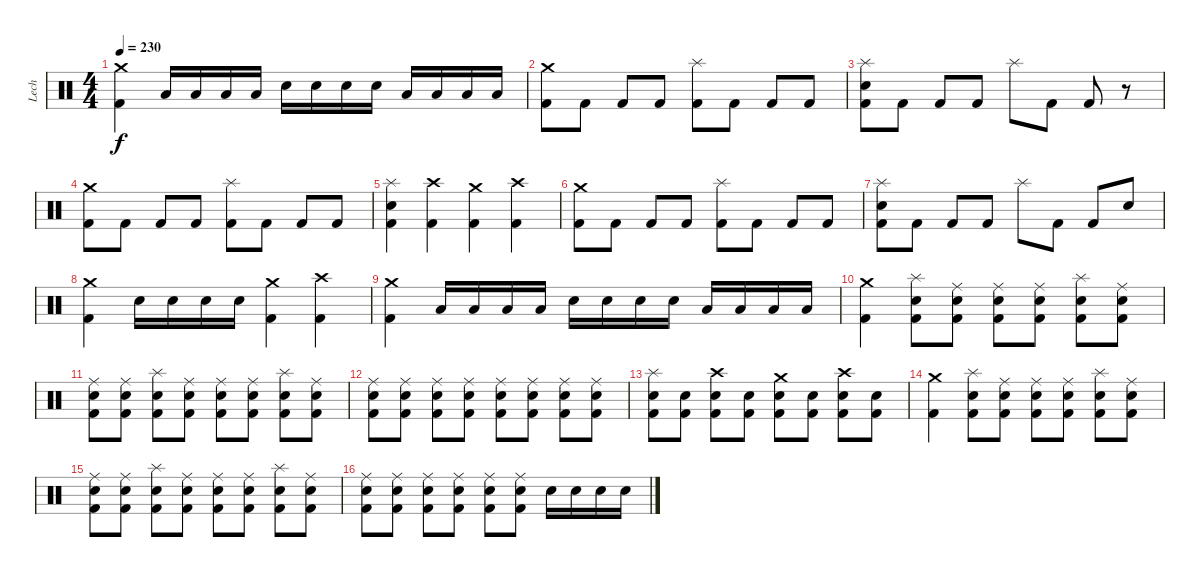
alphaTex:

\track ("Lech" "Lech") {instrument percussion}
\staff {score}
\articulation defaults
\ts (4 4)
\tempo 230
\clef neutral
\ks c
("Crash medium (hit)" "Kick (hit) 2").4{dy f} "Low Tom (hit)".16 "Low Tom (hit)".16 "Low Tom (hit)".16 "Low Tom (hit)".16 "Electric Snare (hit)".16 "Electric Snare (hit)".16 "Electric Snare (hit)".16 "Electric Snare (hit)".16 "Low Tom (hit)".16 "Low Tom (hit)".16 "Low Tom (hit)".16 "Low Tom (hit)".16 |
("Crash medium (hit)" "Kick (hit) 2").8 "Kick (hit) 2".8 "Kick (hit) 2".8 "Kick (hit) 2".8 ("Splash (hit)" "Kick (hit) 2").8 "Kick (hit) 2".8 "Kick (hit) 2".8 "Kick (hit) 2".8 |
("Splash (hit)" "Electric Snare (hit)" "Kick (hit) 2").8 "Kick (hit) 2".8 "Kick (hit) 2".8 "Kick (hit) 2".8 "Splash (hit)".8 "Kick (hit) 2".8 "Kick (hit) 2".8 r.8 |
("Crash medium (hit)" "Kick (hit) 2").8 "Kick (hit) 2".8 "Kick (hit) 2".8 "Kick (hit) 2".8 ("Splash (hit)" "Kick (hit) 2").8 "Kick (hit) 2".8 "Kick (hit) 2".8 "Kick (hit) 2".8 |
("Splash (hit)" "Electric Snare (hit)" "Kick (hit) 2").4 ("Crash high (hit)" "Kick (hit) 2").4 ("Crash medium (hit)" "Kick (hit) 2").4 ("Crash high (hit)" "Kick (hit) 2").4 |
("Crash medium (hit)" "Kick (hit) 2").8 "Kick (hit) 2".8 "Kick (hit) 2".8 "Kick (hit) 2".8 ("Splash (hit)" "Kick (hit) 2").8 "Kick (hit) 2".8 "Kick (hit) 2".8 "Kick (hit) 2".8 |
("Splash (hit)" "Electric Snare (hit)" "Kick (hit) 2").8 "Kick (hit) 2".8 "Kick (hit) 2".8 "Kick (hit) 2".8 "Splash (hit)".8 "Kick (hit) 2".8 "Kick (hit) 2".8 "Electric Snare (hit)".8 |
("Crash medium (hit)" "Kick (hit) 2").4 "Electric Snare (hit)".16 "Electric Snare (hit)".16 "Electric Snare (hit)".16 "Electric Snare (hit)".16 ("Crash medium (hit)" "Kick (hit) 2").4 ("Crash high (hit)" "Kick (hit) 2").4 |
("Crash medium (hit)" "Kick (hit) 2").4 "Low Tom (hit)".16 "Low Tom (hit)".16 "Low Tom (hit)".16 "Low Tom (hit)".16 "Electric Snare (hit)".16 "Electric Snare (hit)".16 "Electric Snare (hit)".16 "Electric Snare (hit)".16 "Low Tom (hit)".16 "Low Tom (hit)".16 "Low Tom (hit)".16 "Low Tom (hit)".16 |
("Crash medium (hit)" "Kick (hit) 2").4 ("Splash (hit)" "Electric Snare (hit)" "Kick (hit) 2").8 ("Ride (middle)" "Electric Snare (hit)" "Kick (hit) 2").8 ("Ride (middle)" "Electric Snare (hit)" "Kick (hit) 2").8 ("Ride (middle)" "Electric Snare (hit)" "Kick (hit) 2").8 ("Splash (hit)" "Electric Snare (hit)" "Kick (hit) 2").8 ("Ride (middle)" "Electric Snare (hit)" "Kick (hit) 2").8 |
("Ride (middle)" "Electric Snare (hit)" "Kick (hit) 2").8 ("Ride (middle)" "Electric Snare (hit)" "Kick (hit) 2").8 ("Splash (hit)" "Electric Snare (hit)" "Kick (hit) 2").8 ("Ride (middle)" "Electric Snare (hit)" "Kick (hit) 2").8 ("Ride (middle)" "Electric Snare (hit)" "Kick (hit) 2").8 ("Ride (middle)" "Electric Snare (hit)" "Kick (hit) 2").8 ("Splash (hit)" "Electric Snare (hit)" "Kick (hit) 2").8 ("Ride (middle)" "Electric Snare (hit)" "Kick (hit) 2").8 |
("Ride (middle)" "Electric Snare (hit)" "Kick (hit) 2").8 ("Ride (middle)" "Electric Snare (hit)" "Kick (hit) 2").8 ("Ride (middle)" "Electric Snare (hit)" "Kick (hit) 2").8 ("Ride (middle)" "Electric Snare (hit)" "Kick (hit) 2").8 ("Ride (middle)" "Electric Snare (hit)" "Kick (hit) 2").8 ("Ride (middle)" "Electric Snare (hit)" "Kick (hit) 2").8 ("Ride (middle)" "Electric Snare (hit)" "Kick (hit) 2").8 ("Ride (middle)" "Electric Snare (hit)" "Kick (hit) 2").8 |
("Splash (hit)" "Electric Snare (hit)" "Kick (hit) 2").8 ("Electric Snare (hit)" "Kick (hit) 2").8 ("Crash high (hit)" "Electric Snare (hit)" "Kick (hit) 2").8 ("Electric Snare (hit)" "Kick (hit) 2").8 ("Crash medium (hit)" "Electric Snare (hit)" "Kick (hit) 2").8 ("Electric Snare (hit)" "Kick (hit) 2").8 ("Crash high (hit)" "Electric Snare (hit)" "Kick (hit) 2").8 ("Electric Snare (hit)" "Kick (hit) 2").8 |
("Crash medium (hit)" "Kick (hit) 2").4 ("Splash (hit)" "Electric Snare (hit)" "Kick (hit) 2").8 ("Ride (middle)" "Electric Snare (hit)" "Kick (hit) 2").8 ("Ride (middle)" "Electric Snare (hit)" "Kick (hit) 2").8 ("Ride (middle)" "Electric Snare (hit)" "Kick (hit) 2").8 ("Splash (hit)" "Electric Snare (hit)" "Kick (hit) 2").8 ("Ride (middle)" "Electric Snare (hit)" "Kick (hit) 2").8 |
("Ride (middle)" "Electric Snare (hit)" "Kick (hit) 2").8 ("Ride (middle)" "Electric Snare (hit)" "Kick (hit) 2").8 ("Splash (hit)" "Electric Snare (hit)" "Kick (hit) 2").8 ("Ride (middle)" "Electric Snare (hit)" "Kick (hit) 2").8 ("Ride (middle)" "Electric Snare (hit)" "Kick (hit) 2").8 ("Ride (middle)" "Electric Snare (hit)" "Kick (hit) 2").8 ("Splash (hit)" "Electric Snare (hit)" "Kick (hit) 2").8 ("Ride (middle)" "Electric Snare (hit)" "Kick (hit) 2").8 |
("Ride (middle)" "Electric Snare (hit)" "Kick (hit) 2").8 ("Ride (middle)" "Electric Snare (hit)" "Kick (hit) 2").8 ("Ride (middle)" "Electric Snare (hit)" "Kick (hit) 2").8 ("Ride (middle)" "Electric Snare (hit)" "Kick (hit) 2").8 ("Ride (middle)" "Electric Snare (hit)" "Kick (hit) 2").8 ("Ride (middle)" "Electric Snare (hit)" "Kick (hit) 2").8 "Electric Snare (hit)".16 "Electric Snare (hit)".16 "Electric Snare (hit)".16 "Electric Snare (hit)".16
